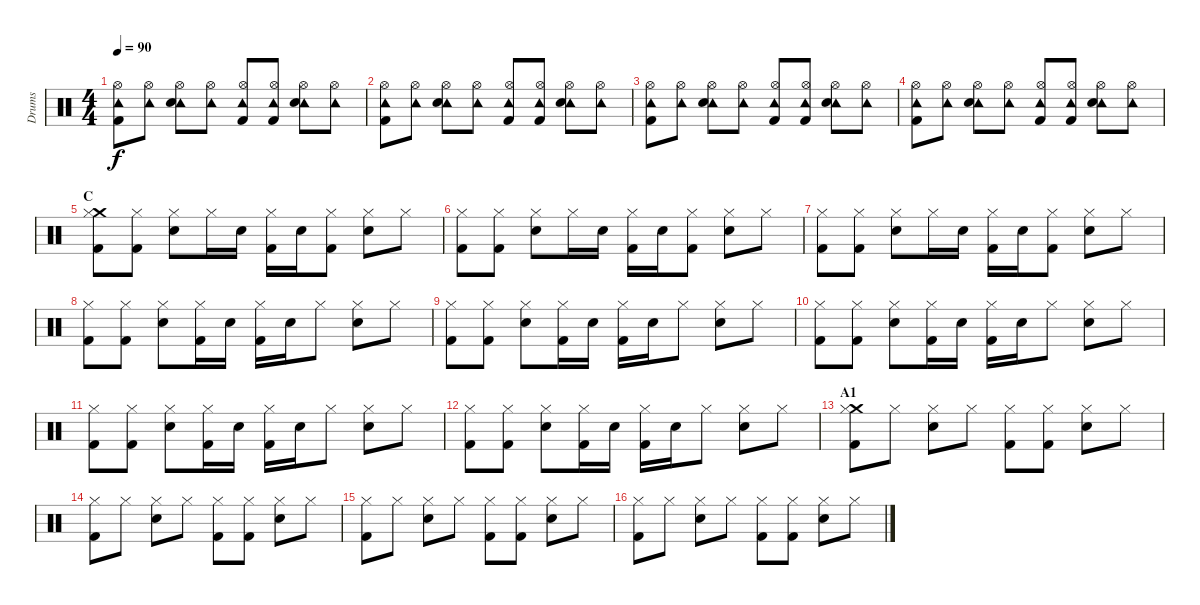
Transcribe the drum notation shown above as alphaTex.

\track ("Drums" "Drums") {instrument percussion}
\staff {score}
\articulation defaults
\ts (4 4)
\tempo 90
\clef neutral
\ks c
("Tambourine (hit)" "Hi-Hat (open)" "Kick (hit) 2").8{dy f} ("Tambourine (hit)" "Hi-Hat (open)").8 ("Tambourine (hit)" "Hi-Hat (open)" "Snare (hit) 2").8 ("Tambourine (hit)" "Hi-Hat (open)").8 ("Tambourine (hit)" "Hi-Hat (open)" "Kick (hit) 2").8 ("Tambourine (hit)" "Hi-Hat (open)" "Kick (hit) 2").8 ("Tambourine (hit)" "Hi-Hat (open)" "Snare (hit) 2").8 ("Tambourine (hit)" "Hi-Hat (open)").8 |
("Tambourine (hit)" "Hi-Hat (open)" "Kick (hit) 2").8 ("Tambourine (hit)" "Hi-Hat (open)").8 ("Tambourine (hit)" "Hi-Hat (open)" "Snare (hit) 2").8 ("Tambourine (hit)" "Hi-Hat (open)").8 ("Tambourine (hit)" "Hi-Hat (open)" "Kick (hit) 2").8 ("Tambourine (hit)" "Hi-Hat (open)" "Kick (hit) 2").8 ("Tambourine (hit)" "Hi-Hat (open)" "Snare (hit) 2").8 ("Tambourine (hit)" "Hi-Hat (open)").8 |
("Tambourine (hit)" "Hi-Hat (open)" "Kick (hit) 2").8 ("Tambourine (hit)" "Hi-Hat (open)").8 ("Tambourine (hit)" "Hi-Hat (open)" "Snare (hit) 2").8 ("Tambourine (hit)" "Hi-Hat (open)").8 ("Tambourine (hit)" "Hi-Hat (open)" "Kick (hit) 2").8 ("Tambourine (hit)" "Hi-Hat (open)" "Kick (hit) 2").8 ("Tambourine (hit)" "Hi-Hat (open)" "Snare (hit) 2").8 ("Tambourine (hit)" "Hi-Hat (open)").8 |
("Tambourine (hit)" "Hi-Hat (open)" "Kick (hit) 2").8 ("Tambourine (hit)" "Hi-Hat (open)").8 ("Tambourine (hit)" "Hi-Hat (open)" "Snare (hit) 2").8 ("Tambourine (hit)" "Hi-Hat (open)").8 ("Tambourine (hit)" "Hi-Hat (open)" "Kick (hit) 2").8 ("Tambourine (hit)" "Hi-Hat (open)" "Kick (hit) 2").8 ("Tambourine (hit)" "Hi-Hat (open)" "Snare (hit) 2").8 ("Tambourine (hit)" "Hi-Hat (open)").8 |
\section ("" "C")
("Crash medium (hit)" "Hi-Hat (closed)" "Kick (hit) 2").8 ("Hi-Hat (closed)" "Kick (hit) 2").8 ("Hi-Hat (closed)" "Snare (hit) 2").8 "Hi-Hat (closed)".16 "Snare (hit) 2".16 ("Hi-Hat (closed)" "Kick (hit) 2").16 "Snare (hit) 2".16 ("Hi-Hat (closed)" "Kick (hit) 2").8 ("Hi-Hat (closed)" "Snare (hit) 2").8 "Hi-Hat (closed)".8 |
("Hi-Hat (closed)" "Kick (hit) 2").8 ("Hi-Hat (closed)" "Kick (hit) 2").8 ("Hi-Hat (closed)" "Snare (hit) 2").8 "Hi-Hat (closed)".16 "Snare (hit) 2".16 ("Hi-Hat (closed)" "Kick (hit) 2").16 "Snare (hit) 2".16 ("Hi-Hat (closed)" "Kick (hit) 2").8 ("Hi-Hat (closed)" "Snare (hit) 2").8 "Hi-Hat (closed)".8 |
("Hi-Hat (closed)" "Kick (hit) 2").8 ("Hi-Hat (closed)" "Kick (hit) 2").8 ("Hi-Hat (closed)" "Snare (hit) 2").8 "Hi-Hat (closed)".16 "Snare (hit) 2".16 ("Hi-Hat (closed)" "Kick (hit) 2").16 "Snare (hit) 2".16 ("Hi-Hat (closed)" "Kick (hit) 2").8 ("Hi-Hat (closed)" "Snare (hit) 2").8 "Hi-Hat (closed)".8 |
("Hi-Hat (closed)" "Kick (hit) 2").8 ("Hi-Hat (closed)" "Kick (hit) 2").8 ("Hi-Hat (closed)" "Snare (hit) 2").8 ("Hi-Hat (closed)" "Kick (hit) 2").16 "Snare (hit) 2".16 ("Hi-Hat (closed)" "Kick (hit) 2").16 "Snare (hit) 2".16 "Hi-Hat (closed)".8 ("Hi-Hat (closed)" "Snare (hit) 2").8 "Hi-Hat (closed)".8 |
("Hi-Hat (closed)" "Kick (hit) 2").8 ("Hi-Hat (closed)" "Kick (hit) 2").8 ("Hi-Hat (closed)" "Snare (hit) 2").8 ("Hi-Hat (closed)" "Kick (hit) 2").16 "Snare (hit) 2".16 ("Hi-Hat (closed)" "Kick (hit) 2").16 "Snare (hit) 2".16 "Hi-Hat (closed)".8 ("Hi-Hat (closed)" "Snare (hit) 2").8 "Hi-Hat (closed)".8 |
("Hi-Hat (closed)" "Kick (hit) 2").8 ("Hi-Hat (closed)" "Kick (hit) 2").8 ("Hi-Hat (closed)" "Snare (hit) 2").8 ("Hi-Hat (closed)" "Kick (hit) 2").16 "Snare (hit) 2".16 ("Hi-Hat (closed)" "Kick (hit) 2").16 "Snare (hit) 2".16 "Hi-Hat (closed)".8 ("Hi-Hat (closed)" "Snare (hit) 2").8 "Hi-Hat (closed)".8 |
("Hi-Hat (closed)" "Kick (hit) 2").8 ("Hi-Hat (closed)" "Kick (hit) 2").8 ("Hi-Hat (closed)" "Snare (hit) 2").8 ("Hi-Hat (closed)" "Kick (hit) 2").16 "Snare (hit) 2".16 ("Hi-Hat (closed)" "Kick (hit) 2").16 "Snare (hit) 2".16 "Hi-Hat (closed)".8 ("Hi-Hat (closed)" "Snare (hit) 2").8 "Hi-Hat (closed)".8 |
("Hi-Hat (closed)" "Kick (hit) 2").8 ("Hi-Hat (closed)" "Kick (hit) 2").8 ("Hi-Hat (closed)" "Snare (hit) 2").8 ("Hi-Hat (closed)" "Kick (hit) 2").16 "Snare (hit) 2".16 ("Hi-Hat (closed)" "Kick (hit) 2").16 "Snare (hit) 2".16 "Hi-Hat (closed)".8 ("Hi-Hat (closed)" "Snare (hit) 2").8 "Hi-Hat (closed)".8 |
\section ("" "A1")
("Crash medium (hit)" "Hi-Hat (closed)" "Kick (hit) 2").8 "Hi-Hat (closed)".8 ("Hi-Hat (closed)" "Snare (hit) 2").8 "Hi-Hat (closed)".8 ("Hi-Hat (closed)" "Kick (hit) 2").8 ("Hi-Hat (closed)" "Kick (hit) 2").8 ("Hi-Hat (closed)" "Snare (hit) 2").8 "Hi-Hat (closed)".8 |
("Hi-Hat (closed)" "Kick (hit) 2").8 "Hi-Hat (closed)".8 ("Hi-Hat (closed)" "Snare (hit) 2").8 "Hi-Hat (closed)".8 ("Hi-Hat (closed)" "Kick (hit) 2").8 ("Hi-Hat (closed)" "Kick (hit) 2").8 ("Hi-Hat (closed)" "Snare (hit) 2").8 "Hi-Hat (closed)".8 |
("Hi-Hat (closed)" "Kick (hit) 2").8 "Hi-Hat (closed)".8 ("Hi-Hat (closed)" "Snare (hit) 2").8 "Hi-Hat (closed)".8 ("Hi-Hat (closed)" "Kick (hit) 2").8 ("Hi-Hat (closed)" "Kick (hit) 2").8 ("Hi-Hat (closed)" "Snare (hit) 2").8 "Hi-Hat (closed)".8 |
("Hi-Hat (closed)" "Kick (hit) 2").8 "Hi-Hat (closed)".8 ("Hi-Hat (closed)" "Snare (hit) 2").8 "Hi-Hat (closed)".8 ("Hi-Hat (closed)" "Kick (hit) 2").8 ("Hi-Hat (closed)" "Kick (hit) 2").8 ("Hi-Hat (closed)" "Snare (hit) 2").8 "Hi-Hat (closed)".8
